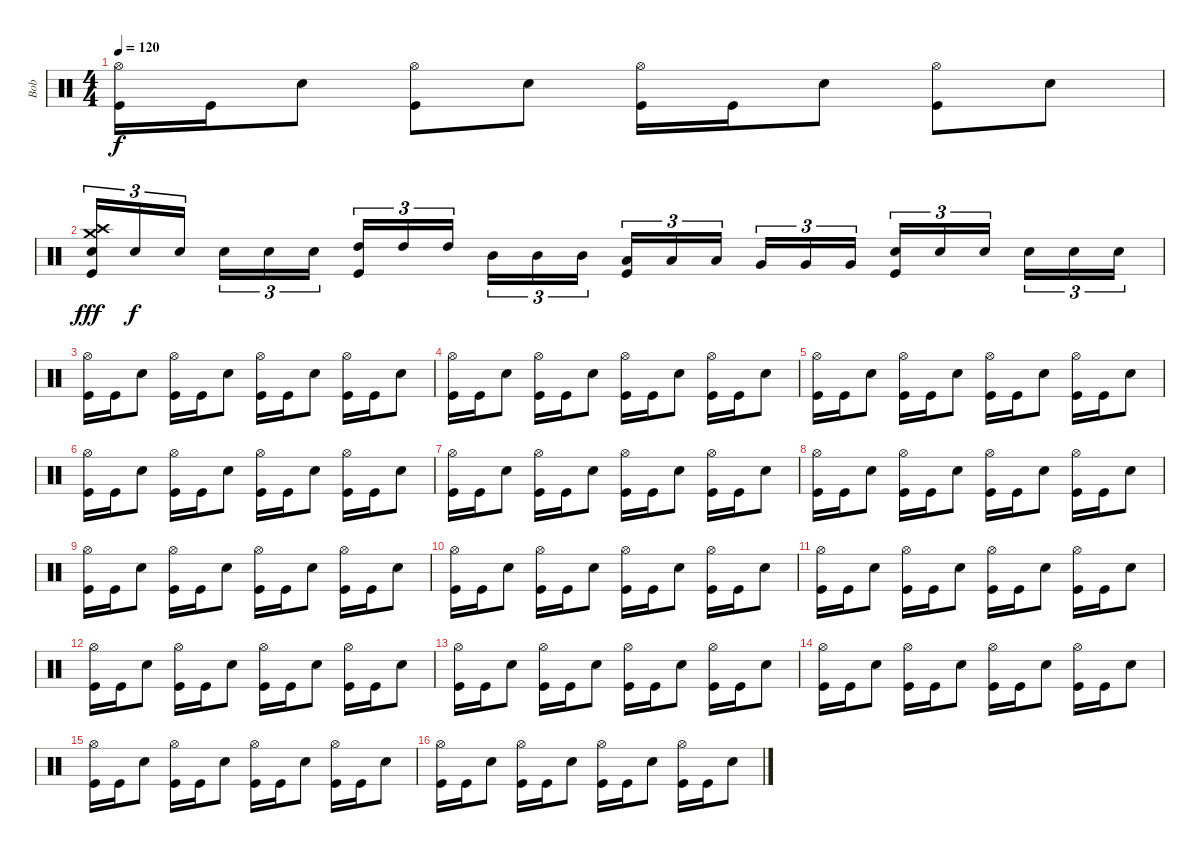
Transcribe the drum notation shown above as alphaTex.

\track ("Bob" "Bob") {instrument percussion}
\staff {score}
\articulation defaults
\ts (4 4)
\tempo 120
\clef neutral
\ks c
("Hi-Hat (open)" "Kick (hit)").16{dy f} "Kick (hit)".16 "Snare (hit) 2".8 ("Hi-Hat (open)" "Kick (hit)").8 "Snare (hit) 2".8 ("Hi-Hat (open)" "Kick (hit)").16 "Kick (hit)".16 "Snare (hit) 2".8 ("Hi-Hat (open)" "Kick (hit)").8 "Snare (hit) 2".8 |
("Crash high (hit)" "Crash medium (hit)" "Electric Snare (hit)" "Kick (hit)").16{tu (3 2) dy fff} "Electric Snare (hit)".16{tu (3 2) dy f} "Electric Snare (hit)".16{tu (3 2)} "Snare (hit) 2".16{tu (3 2)} "Snare (hit) 2".16{tu (3 2)} "Snare (hit) 2".16{tu (3 2)} ("High Tom (hit)" "Kick (hit)").16{tu (3 2)} "High Tom (hit)".16{tu (3 2)} "High Tom (hit)".16{tu (3 2)} "Mid Tom (hit)".16{tu (3 2)} "Mid Tom (hit)".16{tu (3 2)} "Mid Tom (hit)".16{tu (3 2)} ("Low Tom (hit)" "Kick (hit)").16{tu (3 2)} "Low Tom (hit)".16{tu (3 2)} "Low Tom (hit)".16{tu (3 2)} "Very Low Tom (hit)".16{tu (3 2)} "Very Low Tom (hit)".16{tu (3 2)} "Very Low Tom (hit)".16{tu (3 2)} ("Snare (hit) 2" "Kick (hit)").16{tu (3 2)} "Snare (hit) 2".16{tu (3 2)} "Snare (hit) 2".16{tu (3 2)} "Snare (hit) 2".16{tu (3 2)} "Snare (hit) 2".16{tu (3 2)} "Snare (hit) 2".16{tu (3 2)} |
("Hi-Hat (open)" "Kick (hit)").16 "Kick (hit)".16 "Snare (hit) 2".8 ("Hi-Hat (open)" "Kick (hit)").16 "Kick (hit)".16 "Snare (hit) 2".8 ("Hi-Hat (open)" "Kick (hit)").16 "Kick (hit)".16 "Snare (hit) 2".8 ("Hi-Hat (open)" "Kick (hit)").16 "Kick (hit)".16 "Snare (hit) 2".8 |
("Hi-Hat (open)" "Kick (hit)").16 "Kick (hit)".16 "Snare (hit) 2".8 ("Hi-Hat (open)" "Kick (hit)").16 "Kick (hit)".16 "Snare (hit) 2".8 ("Hi-Hat (open)" "Kick (hit)").16 "Kick (hit)".16 "Snare (hit) 2".8 ("Hi-Hat (open)" "Kick (hit)").16 "Kick (hit)".16 "Snare (hit) 2".8 |
("Hi-Hat (open)" "Kick (hit)").16 "Kick (hit)".16 "Snare (hit) 2".8 ("Hi-Hat (open)" "Kick (hit)").16 "Kick (hit)".16 "Snare (hit) 2".8 ("Hi-Hat (open)" "Kick (hit)").16 "Kick (hit)".16 "Snare (hit) 2".8 ("Hi-Hat (open)" "Kick (hit)").16 "Kick (hit)".16 "Snare (hit) 2".8 |
("Hi-Hat (open)" "Kick (hit)").16 "Kick (hit)".16 "Snare (hit) 2".8 ("Hi-Hat (open)" "Kick (hit)").16 "Kick (hit)".16 "Snare (hit) 2".8 ("Hi-Hat (open)" "Kick (hit)").16 "Kick (hit)".16 "Snare (hit) 2".8 ("Hi-Hat (open)" "Kick (hit)").16 "Kick (hit)".16 "Snare (hit) 2".8 |
("Hi-Hat (open)" "Kick (hit)").16 "Kick (hit)".16 "Snare (hit) 2".8 ("Hi-Hat (open)" "Kick (hit)").16 "Kick (hit)".16 "Snare (hit) 2".8 ("Hi-Hat (open)" "Kick (hit)").16 "Kick (hit)".16 "Snare (hit) 2".8 ("Hi-Hat (open)" "Kick (hit)").16 "Kick (hit)".16 "Snare (hit) 2".8 |
("Hi-Hat (open)" "Kick (hit)").16 "Kick (hit)".16 "Snare (hit) 2".8 ("Hi-Hat (open)" "Kick (hit)").16 "Kick (hit)".16 "Snare (hit) 2".8 ("Hi-Hat (open)" "Kick (hit)").16 "Kick (hit)".16 "Snare (hit) 2".8 ("Hi-Hat (open)" "Kick (hit)").16 "Kick (hit)".16 "Snare (hit) 2".8 |
("Hi-Hat (open)" "Kick (hit)").16 "Kick (hit)".16 "Snare (hit) 2".8 ("Hi-Hat (open)" "Kick (hit)").16 "Kick (hit)".16 "Snare (hit) 2".8 ("Hi-Hat (open)" "Kick (hit)").16 "Kick (hit)".16 "Snare (hit) 2".8 ("Hi-Hat (open)" "Kick (hit)").16 "Kick (hit)".16 "Snare (hit) 2".8 |
("Hi-Hat (open)" "Kick (hit)").16 "Kick (hit)".16 "Snare (hit) 2".8 ("Hi-Hat (open)" "Kick (hit)").16 "Kick (hit)".16 "Snare (hit) 2".8 ("Hi-Hat (open)" "Kick (hit)").16 "Kick (hit)".16 "Snare (hit) 2".8 ("Hi-Hat (open)" "Kick (hit)").16 "Kick (hit)".16 "Snare (hit) 2".8 |
("Hi-Hat (open)" "Kick (hit)").16 "Kick (hit)".16 "Snare (hit) 2".8 ("Hi-Hat (open)" "Kick (hit)").16 "Kick (hit)".16 "Snare (hit) 2".8 ("Hi-Hat (open)" "Kick (hit)").16 "Kick (hit)".16 "Snare (hit) 2".8 ("Hi-Hat (open)" "Kick (hit)").16 "Kick (hit)".16 "Snare (hit) 2".8 |
("Hi-Hat (open)" "Kick (hit)").16 "Kick (hit)".16 "Snare (hit) 2".8 ("Hi-Hat (open)" "Kick (hit)").16 "Kick (hit)".16 "Snare (hit) 2".8 ("Hi-Hat (open)" "Kick (hit)").16 "Kick (hit)".16 "Snare (hit) 2".8 ("Hi-Hat (open)" "Kick (hit)").16 "Kick (hit)".16 "Snare (hit) 2".8 |
("Hi-Hat (open)" "Kick (hit)").16 "Kick (hit)".16 "Snare (hit) 2".8 ("Hi-Hat (open)" "Kick (hit)").16 "Kick (hit)".16 "Snare (hit) 2".8 ("Hi-Hat (open)" "Kick (hit)").16 "Kick (hit)".16 "Snare (hit) 2".8 ("Hi-Hat (open)" "Kick (hit)").16 "Kick (hit)".16 "Snare (hit) 2".8 |
("Hi-Hat (open)" "Kick (hit)").16 "Kick (hit)".16 "Snare (hit) 2".8 ("Hi-Hat (open)" "Kick (hit)").16 "Kick (hit)".16 "Snare (hit) 2".8 ("Hi-Hat (open)" "Kick (hit)").16 "Kick (hit)".16 "Snare (hit) 2".8 ("Hi-Hat (open)" "Kick (hit)").16 "Kick (hit)".16 "Snare (hit) 2".8 |
("Hi-Hat (open)" "Kick (hit)").16 "Kick (hit)".16 "Snare (hit) 2".8 ("Hi-Hat (open)" "Kick (hit)").16 "Kick (hit)".16 "Snare (hit) 2".8 ("Hi-Hat (open)" "Kick (hit)").16 "Kick (hit)".16 "Snare (hit) 2".8 ("Hi-Hat (open)" "Kick (hit)").16 "Kick (hit)".16 "Snare (hit) 2".8 |
("Hi-Hat (open)" "Kick (hit)").16 "Kick (hit)".16 "Snare (hit) 2".8 ("Hi-Hat (open)" "Kick (hit)").16 "Kick (hit)".16 "Snare (hit) 2".8 ("Hi-Hat (open)" "Kick (hit)").16 "Kick (hit)".16 "Snare (hit) 2".8 ("Hi-Hat (open)" "Kick (hit)").16 "Kick (hit)".16 "Snare (hit) 2".8
